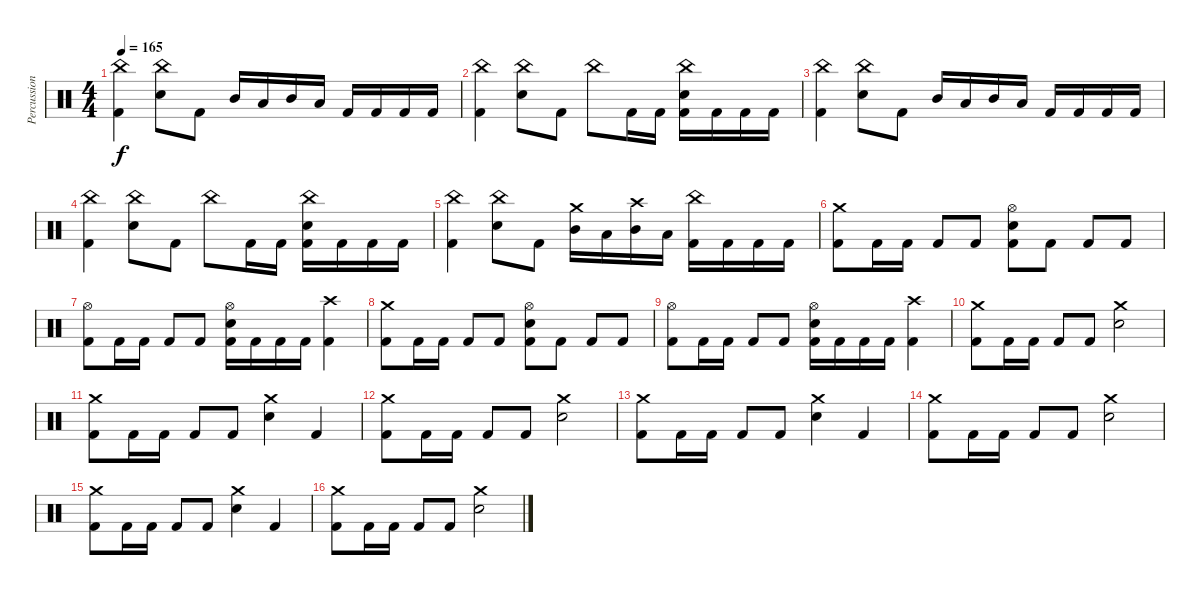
\track ("Percussion" "Percussion") {instrument percussion}
\staff {score}
\articulation defaults
\ts (4 4)
\tempo 165
\clef neutral
\ks c
("China (hit)" "Kick (hit) 2").4{dy f} ("China (hit)" "Snare (hit) 2").8 "Kick (hit) 2".8 "Mid Tom (hit)".16 "Low Tom (hit)".16 "Mid Tom (hit)".16 "Low Tom (hit)".16 "Kick (hit) 2".16 "Kick (hit) 2".16 "Kick (hit) 2".16 "Kick (hit) 2".16 |
("China (hit)" "Kick (hit) 2").4 ("China (hit)" "Snare (hit) 2").8 "Kick (hit) 2".8 "China (hit)".8 "Kick (hit) 2".16 "Kick (hit) 2".16 ("China (hit)" "Snare (hit) 2" "Kick (hit) 2").16 "Kick (hit) 2".16 "Kick (hit) 2".16 "Kick (hit) 2".16 |
("China (hit)" "Kick (hit) 2").4 ("China (hit)" "Snare (hit) 2").8 "Kick (hit) 2".8 "Mid Tom (hit)".16 "Low Tom (hit)".16 "Mid Tom (hit)".16 "Low Tom (hit)".16 "Kick (hit) 2".16 "Kick (hit) 2".16 "Kick (hit) 2".16 "Kick (hit) 2".16 |
("China (hit)" "Kick (hit) 2").4 ("China (hit)" "Snare (hit) 2").8 "Kick (hit) 2".8 "China (hit)".8 "Kick (hit) 2".16 "Kick (hit) 2".16 ("China (hit)" "Snare (hit) 2" "Kick (hit) 2").16 "Kick (hit) 2".16 "Kick (hit) 2".16 "Kick (hit) 2".16 |
("China (hit)" "Kick (hit) 2").4 ("China (hit)" "Snare (hit) 2").8 "Kick (hit) 2".8 ("Crash medium (hit)" "Mid Tom (hit)").16 "Low Tom (hit)".16 ("Crash high (hit)" "Mid Tom (hit)").16 "Low Tom (hit)".16 ("China (hit)" "Kick (hit) 2").16 "Kick (hit) 2".16 "Kick (hit) 2".16 "Kick (hit) 2".16 |
("Crash medium (hit)" "Kick (hit) 2").8 "Kick (hit) 2".16 "Kick (hit) 2".16 "Kick (hit) 2".8 "Kick (hit) 2".8 ("Hi-Hat (open)" "Snare (hit) 2" "Kick (hit) 2").8 "Kick (hit) 2".8 "Kick (hit) 2".8 "Kick (hit) 2".8 |
("Hi-Hat (open)" "Kick (hit) 2").8 "Kick (hit) 2".16 "Kick (hit) 2".16 "Kick (hit) 2".8 "Kick (hit) 2".8 ("Hi-Hat (open)" "Snare (hit) 2" "Kick (hit) 2").16 "Kick (hit) 2".16 "Kick (hit) 2".16 "Kick (hit) 2".16 ("Crash high (hit)" "Kick (hit) 2").4 |
("Crash medium (hit)" "Kick (hit) 2").8 "Kick (hit) 2".16 "Kick (hit) 2".16 "Kick (hit) 2".8 "Kick (hit) 2".8 ("Hi-Hat (open)" "Snare (hit) 2" "Kick (hit) 2").8 "Kick (hit) 2".8 "Kick (hit) 2".8 "Kick (hit) 2".8 |
("Hi-Hat (open)" "Kick (hit) 2").8 "Kick (hit) 2".16 "Kick (hit) 2".16 "Kick (hit) 2".8 "Kick (hit) 2".8 ("Hi-Hat (open)" "Snare (hit) 2" "Kick (hit) 2").16 "Kick (hit) 2".16 "Kick (hit) 2".16 "Kick (hit) 2".16 ("Crash high (hit)" "Kick (hit) 2").4 |
("Crash medium (hit)" "Kick (hit) 2").8 "Kick (hit) 2".16 "Kick (hit) 2".16 "Kick (hit) 2".8 "Kick (hit) 2".8 ("Crash medium (hit)" "Snare (hit) 2").2 |
("Crash medium (hit)" "Kick (hit) 2").8 "Kick (hit) 2".16 "Kick (hit) 2".16 "Kick (hit) 2".8 "Kick (hit) 2".8 ("Crash medium (hit)" "Snare (hit) 2").4 "Kick (hit) 2".4 |
("Crash medium (hit)" "Kick (hit) 2").8 "Kick (hit) 2".16 "Kick (hit) 2".16 "Kick (hit) 2".8 "Kick (hit) 2".8 ("Crash medium (hit)" "Snare (hit) 2").2 |
("Crash medium (hit)" "Kick (hit) 2").8 "Kick (hit) 2".16 "Kick (hit) 2".16 "Kick (hit) 2".8 "Kick (hit) 2".8 ("Crash medium (hit)" "Snare (hit) 2").4 "Kick (hit) 2".4 |
("Crash medium (hit)" "Kick (hit) 2").8 "Kick (hit) 2".16 "Kick (hit) 2".16 "Kick (hit) 2".8 "Kick (hit) 2".8 ("Crash medium (hit)" "Snare (hit) 2").2 |
("Crash medium (hit)" "Kick (hit) 2").8 "Kick (hit) 2".16 "Kick (hit) 2".16 "Kick (hit) 2".8 "Kick (hit) 2".8 ("Crash medium (hit)" "Snare (hit) 2").4 "Kick (hit) 2".4 |
("Crash medium (hit)" "Kick (hit) 2").8 "Kick (hit) 2".16 "Kick (hit) 2".16 "Kick (hit) 2".8 "Kick (hit) 2".8 ("Crash medium (hit)" "Snare (hit) 2").2
